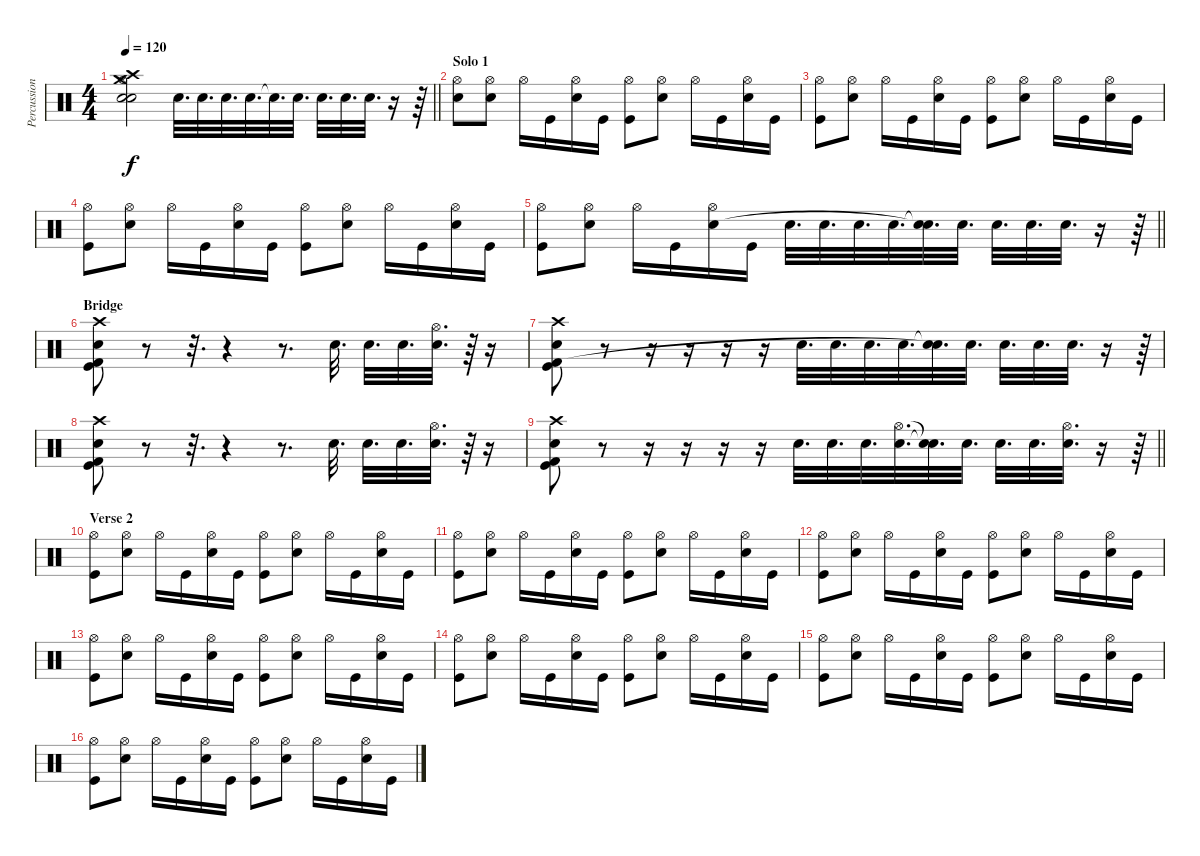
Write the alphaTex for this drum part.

\track ("Percussion" "Percussion") {instrument percussion}
\staff {score}
\articulation defaults
\ts (4 4)
\tempo 120
\clef neutral
\barLineRight lightlight
\ks c
("Crash high (hit)" "Crash medium (hit)" "Snare (hit) 2" "Electric Snare (hit)" "Hi-Hat (open)").2{dy f} "Electric Snare (hit)".32{d} "Electric Snare (hit)".32{d} "Electric Snare (hit)".32{d} "Electric Snare (hit)".32{d} "Snare (hit)"{t}.32{d} "Electric Snare (hit)".32{d} "Electric Snare (hit)".32{d} "Electric Snare (hit)".32{d} "Electric Snare (hit)".32{d} r.16 r.64 |
\section ("" "Solo 1")
("Hi-Hat (open)" "Electric Snare (hit)").8 ("Hi-Hat (open)" "Electric Snare (hit)").8 "Hi-Hat (open)".16 "Kick (hit)".16 ("Hi-Hat (open)" "Electric Snare (hit)").16 "Kick (hit)".16 ("Hi-Hat (open)" "Kick (hit)").8 ("Hi-Hat (open)" "Electric Snare (hit)").8 "Hi-Hat (open)".16 "Kick (hit)".16 ("Hi-Hat (open)" "Electric Snare (hit)").16 "Kick (hit)".16 |
("Hi-Hat (open)" "Kick (hit)").8 ("Hi-Hat (open)" "Electric Snare (hit)").8 "Hi-Hat (open)".16 "Kick (hit)".16 ("Hi-Hat (open)" "Electric Snare (hit)").16 "Kick (hit)".16 ("Hi-Hat (open)" "Kick (hit)").8 ("Hi-Hat (open)" "Electric Snare (hit)").8 "Hi-Hat (open)".16 "Kick (hit)".16 ("Hi-Hat (open)" "Electric Snare (hit)").16 "Kick (hit)".16 |
("Hi-Hat (open)" "Kick (hit)").8 ("Hi-Hat (open)" "Electric Snare (hit)").8 "Hi-Hat (open)".16 "Kick (hit)".16 ("Hi-Hat (open)" "Electric Snare (hit)").16 "Kick (hit)".16 ("Hi-Hat (open)" "Kick (hit)").8 ("Hi-Hat (open)" "Electric Snare (hit)").8 "Hi-Hat (open)".16 "Kick (hit)".16 ("Hi-Hat (open)" "Electric Snare (hit)").16 "Kick (hit)".16 |
\barLineRight lightlight
("Hi-Hat (open)" "Kick (hit)").8 ("Hi-Hat (open)" "Electric Snare (hit)").8 "Hi-Hat (open)".16 "Kick (hit)".16 ("Hi-Hat (open)" "Electric Snare (hit)").16 "Kick (hit)".16 "Electric Snare (hit)".32{d} "Electric Snare (hit)".32{d} "Electric Snare (hit)".32{d} "Electric Snare (hit)".32{d} ("Snare (hit)"{t} "Snare (hit)"{t}).32{d} "Electric Snare (hit)".32{d} "Electric Snare (hit)".32{d} "Electric Snare (hit)".32{d} "Electric Snare (hit)".32{d} r.16 r.64 |
\section ("" "Bridge")
("Crash high (hit)" "Kick (hit) 2" "Electric Snare (hit)" "Kick (hit)").8 r.8 r.32{d} r.4 r.8{d} "Electric Snare (hit)".32{d} "Electric Snare (hit)".32{d} "Electric Snare (hit)".32{d} ("Hi-Hat (open)" "Electric Snare (hit)").32{d} r.64 r.16 |
("Crash high (hit)" "Kick (hit) 2" "Electric Snare (hit)" "Kick (hit)").8 r.8 r.16 r.16 r.16 r.16 "Electric Snare (hit)".32{d} "Electric Snare (hit)".32{d} "Electric Snare (hit)".32{d} "Electric Snare (hit)".32{d} ("Snare (hit)"{t} "Snare (hit)"{t}).32{d} "Electric Snare (hit)".32{d} "Electric Snare (hit)".32{d} "Electric Snare (hit)".32{d} "Electric Snare (hit)".32{d} r.16 r.64 |
("Crash high (hit)" "Kick (hit) 2" "Electric Snare (hit)" "Kick (hit)").8 r.8 r.32{d} r.4 r.8{d} "Electric Snare (hit)".32{d} "Electric Snare (hit)".32{d} "Electric Snare (hit)".32{d} ("Hi-Hat (open)" "Electric Snare (hit)").32{d} r.64 r.16 |
\barLineRight lightlight
("Crash high (hit)" "Kick (hit) 2" "Electric Snare (hit)" "Kick (hit)").8 r.8 r.16 r.16 r.16 r.16 "Electric Snare (hit)".32{d} "Electric Snare (hit)".32{d} "Electric Snare (hit)".32{d} ("Hi-Hat (open)" "Electric Snare (hit)").32{d} ("Snare (hit)"{t} "Snare (hit)"{t}).32{d} "Electric Snare (hit)".32{d} "Electric Snare (hit)".32{d} "Electric Snare (hit)".32{d} ("Hi-Hat (open)" "Electric Snare (hit)").32{d} r.16 r.64 |
\section ("" "Verse 2")
("Hi-Hat (open)" "Kick (hit)").8 ("Hi-Hat (open)" "Electric Snare (hit)").8 "Hi-Hat (open)".16 "Kick (hit)".16 ("Hi-Hat (open)" "Electric Snare (hit)").16 "Kick (hit)".16 ("Hi-Hat (open)" "Kick (hit)").8 ("Hi-Hat (open)" "Electric Snare (hit)").8 "Hi-Hat (open)".16 "Kick (hit)".16 ("Hi-Hat (open)" "Electric Snare (hit)").16 "Kick (hit)".16 |
("Hi-Hat (open)" "Kick (hit)").8 ("Hi-Hat (open)" "Electric Snare (hit)").8 "Hi-Hat (open)".16 "Kick (hit)".16 ("Hi-Hat (open)" "Electric Snare (hit)").16 "Kick (hit)".16 ("Hi-Hat (open)" "Kick (hit)").8 ("Hi-Hat (open)" "Electric Snare (hit)").8 "Hi-Hat (open)".16 "Kick (hit)".16 ("Hi-Hat (open)" "Electric Snare (hit)").16 "Kick (hit)".16 |
("Hi-Hat (open)" "Kick (hit)").8 ("Hi-Hat (open)" "Electric Snare (hit)").8 "Hi-Hat (open)".16 "Kick (hit)".16 ("Hi-Hat (open)" "Electric Snare (hit)").16 "Kick (hit)".16 ("Hi-Hat (open)" "Kick (hit)").8 ("Hi-Hat (open)" "Electric Snare (hit)").8 "Hi-Hat (open)".16 "Kick (hit)".16 ("Hi-Hat (open)" "Electric Snare (hit)").16 "Kick (hit)".16 |
("Hi-Hat (open)" "Kick (hit)").8 ("Hi-Hat (open)" "Electric Snare (hit)").8 "Hi-Hat (open)".16 "Kick (hit)".16 ("Hi-Hat (open)" "Electric Snare (hit)").16 "Kick (hit)".16 ("Hi-Hat (open)" "Kick (hit)").8 ("Hi-Hat (open)" "Electric Snare (hit)").8 "Hi-Hat (open)".16 "Kick (hit)".16 ("Hi-Hat (open)" "Electric Snare (hit)").16 "Kick (hit)".16 |
("Hi-Hat (open)" "Kick (hit)").8 ("Hi-Hat (open)" "Electric Snare (hit)").8 "Hi-Hat (open)".16 "Kick (hit)".16 ("Hi-Hat (open)" "Electric Snare (hit)").16 "Kick (hit)".16 ("Hi-Hat (open)" "Kick (hit)").8 ("Hi-Hat (open)" "Electric Snare (hit)").8 "Hi-Hat (open)".16 "Kick (hit)".16 ("Hi-Hat (open)" "Electric Snare (hit)").16 "Kick (hit)".16 |
("Hi-Hat (open)" "Kick (hit)").8 ("Hi-Hat (open)" "Electric Snare (hit)").8 "Hi-Hat (open)".16 "Kick (hit)".16 ("Hi-Hat (open)" "Electric Snare (hit)").16 "Kick (hit)".16 ("Hi-Hat (open)" "Kick (hit)").8 ("Hi-Hat (open)" "Electric Snare (hit)").8 "Hi-Hat (open)".16 "Kick (hit)".16 ("Hi-Hat (open)" "Electric Snare (hit)").16 "Kick (hit)".16 |
("Hi-Hat (open)" "Kick (hit)").8 ("Hi-Hat (open)" "Electric Snare (hit)").8 "Hi-Hat (open)".16 "Kick (hit)".16 ("Hi-Hat (open)" "Electric Snare (hit)").16 "Kick (hit)".16 ("Hi-Hat (open)" "Kick (hit)").8 ("Hi-Hat (open)" "Electric Snare (hit)").8 "Hi-Hat (open)".16 "Kick (hit)".16 ("Hi-Hat (open)" "Electric Snare (hit)").16 "Kick (hit)".16
